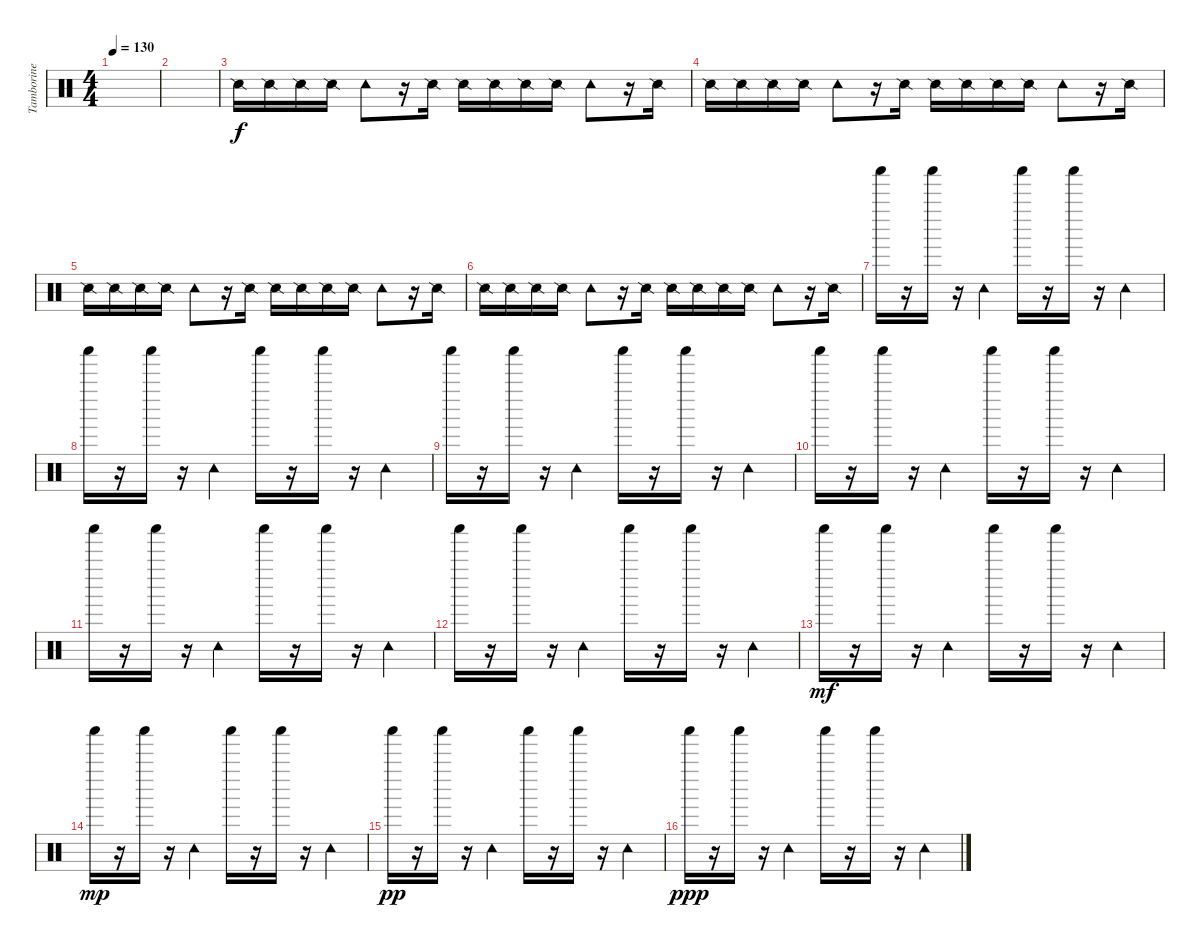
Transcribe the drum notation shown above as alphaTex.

\track ("Tamborine" "Tamborine") {instrument percussion}
\staff {score}
\articulation defaults
\ts (4 4)
\tempo 130
\clef neutral
\ks c
|
|
"Snare (side stick) 2".16 "Snare (side stick) 2".16 "Snare (side stick) 2".16 "Snare (side stick) 2".16 "Tambourine (hit)".8 r.16 "Snare (side stick) 2".16 "Snare (side stick) 2".16 "Snare (side stick) 2".16 "Snare (side stick) 2".16 "Snare (side stick) 2".16 "Tambourine (hit)".8 r.16 "Snare (side stick) 2".16 |
"Snare (side stick) 2".16 "Snare (side stick) 2".16 "Snare (side stick) 2".16 "Snare (side stick) 2".16 "Tambourine (hit)".8 r.16 "Snare (side stick) 2".16 "Snare (side stick) 2".16 "Snare (side stick) 2".16 "Snare (side stick) 2".16 "Snare (side stick) 2".16 "Tambourine (hit)".8 r.16 "Snare (side stick) 2".16 |
"Snare (side stick) 2".16 "Snare (side stick) 2".16 "Snare (side stick) 2".16 "Snare (side stick) 2".16 "Tambourine (hit)".8 r.16 "Snare (side stick) 2".16 "Snare (side stick) 2".16 "Snare (side stick) 2".16 "Snare (side stick) 2".16 "Snare (side stick) 2".16 "Tambourine (hit)".8 r.16 "Snare (side stick) 2".16 |
"Snare (side stick) 2".16 "Snare (side stick) 2".16 "Snare (side stick) 2".16 "Snare (side stick) 2".16 "Tambourine (hit)".8 r.16 "Snare (side stick) 2".16 "Snare (side stick) 2".16 "Snare (side stick) 2".16 "Snare (side stick) 2".16 "Snare (side stick) 2".16 "Tambourine (hit)".8 r.16 "Snare (side stick) 2".16 |
"Shaker (hit)".16 r.16 "Shaker (hit)".16 r.16 "Tambourine (hit)".4 "Shaker (hit)".16 r.16 "Shaker (hit)".16 r.16 "Tambourine (hit)".4 |
"Shaker (hit)".16 r.16 "Shaker (hit)".16 r.16 "Tambourine (hit)".4 "Shaker (hit)".16 r.16 "Shaker (hit)".16 r.16 "Tambourine (hit)".4 |
"Shaker (hit)".16 r.16 "Shaker (hit)".16 r.16 "Tambourine (hit)".4 "Shaker (hit)".16 r.16 "Shaker (hit)".16 r.16 "Tambourine (hit)".4 |
"Shaker (hit)".16 r.16 "Shaker (hit)".16 r.16 "Tambourine (hit)".4 "Shaker (hit)".16 r.16 "Shaker (hit)".16 r.16 "Tambourine (hit)".4 |
"Shaker (hit)".16 r.16 "Shaker (hit)".16 r.16 "Tambourine (hit)".4 "Shaker (hit)".16 r.16 "Shaker (hit)".16 r.16 "Tambourine (hit)".4 |
"Shaker (hit)".16 r.16 "Shaker (hit)".16 r.16 "Tambourine (hit)".4 "Shaker (hit)".16 r.16 "Shaker (hit)".16 r.16 "Tambourine (hit)".4 |
"Shaker (hit)".16{dy mf} r.16 "Shaker (hit)".16 r.16 "Tambourine (hit)".4 "Shaker (hit)".16 r.16 "Shaker (hit)".16 r.16 "Tambourine (hit)".4 |
"Shaker (hit)".16{dy mp} r.16 "Shaker (hit)".16 r.16 "Tambourine (hit)".4 "Shaker (hit)".16 r.16 "Shaker (hit)".16 r.16 "Tambourine (hit)".4 |
"Shaker (hit)".16{dy pp} r.16 "Shaker (hit)".16 r.16 "Tambourine (hit)".4 "Shaker (hit)".16 r.16 "Shaker (hit)".16 r.16 "Tambourine (hit)".4 |
"Shaker (hit)".16{dy ppp} r.16 "Shaker (hit)".16 r.16 "Tambourine (hit)".4 "Shaker (hit)".16 r.16 "Shaker (hit)".16 r.16 "Tambourine (hit)".4
